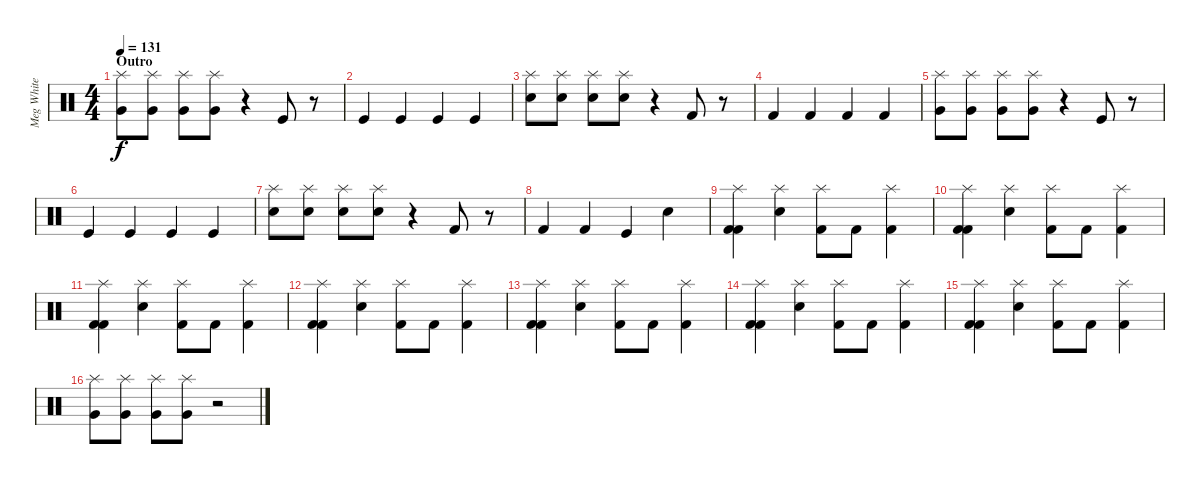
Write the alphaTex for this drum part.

\track ("Meg White" "Meg White") {instrument percussion}
\staff {score}
\articulation defaults
\ts (4 4)
\section ("" "Outro")
\tempo 131
\clef neutral
\ks c
("Splash (hit)" "Very Low Tom (hit)").8{dy f} ("Splash (hit)" "Very Low Tom (hit)").8 ("Splash (hit)" "Very Low Tom (hit)").8 ("Splash (hit)" "Very Low Tom (hit)").8 r.4 "Kick (hit)".8 r.8 |
"Kick (hit)".4 "Kick (hit)".4 "Kick (hit)".4 "Kick (hit)".4 |
("Splash (hit)" "Snare (hit) 2").8 ("Splash (hit)" "Snare (hit) 2").8 ("Splash (hit)" "Snare (hit) 2").8 ("Splash (hit)" "Snare (hit) 2").8 r.4 "Kick (hit) 2".8 r.8 |
"Kick (hit) 2".4 "Kick (hit) 2".4 "Kick (hit) 2".4 "Kick (hit) 2".4 |
("Splash (hit)" "Very Low Tom (hit)").8 ("Splash (hit)" "Very Low Tom (hit)").8 ("Splash (hit)" "Very Low Tom (hit)").8 ("Splash (hit)" "Very Low Tom (hit)").8 r.4 "Kick (hit)".8 r.8 |
"Kick (hit)".4 "Kick (hit)".4 "Kick (hit)".4 "Kick (hit)".4 |
("Splash (hit)" "Snare (hit) 2").8 ("Splash (hit)" "Snare (hit) 2").8 ("Splash (hit)" "Snare (hit) 2").8 ("Splash (hit)" "Snare (hit) 2").8 r.4 "Kick (hit) 2".8 r.8 |
"Kick (hit) 2".4 "Kick (hit) 2".4 "Kick (hit)".4 "Electric Snare (hit)".4 |
("Splash (hit)" "Kick (hit) 2" "Kick (hit) 2").4 ("Splash (hit)" "Snare (hit) 2").4 ("Splash (hit)" "Kick (hit) 2").8 "Kick (hit) 2".8 ("Splash (hit)" "Kick (hit) 2").4 |
("Splash (hit)" "Kick (hit) 2" "Kick (hit) 2").4 ("Splash (hit)" "Snare (hit) 2").4 ("Splash (hit)" "Kick (hit) 2").8 "Kick (hit) 2".8 ("Splash (hit)" "Kick (hit) 2").4 |
("Splash (hit)" "Kick (hit) 2" "Kick (hit) 2").4 ("Splash (hit)" "Snare (hit) 2").4 ("Splash (hit)" "Kick (hit) 2").8 "Kick (hit) 2".8 ("Splash (hit)" "Kick (hit) 2").4 |
("Splash (hit)" "Kick (hit) 2" "Kick (hit) 2").4 ("Splash (hit)" "Snare (hit) 2").4 ("Splash (hit)" "Kick (hit) 2").8 "Kick (hit) 2".8 ("Splash (hit)" "Kick (hit) 2").4 |
("Splash (hit)" "Kick (hit) 2" "Kick (hit) 2").4 ("Splash (hit)" "Snare (hit) 2").4 ("Splash (hit)" "Kick (hit) 2").8 "Kick (hit) 2".8 ("Splash (hit)" "Kick (hit) 2").4 |
("Splash (hit)" "Kick (hit) 2" "Kick (hit) 2").4 ("Splash (hit)" "Snare (hit) 2").4 ("Splash (hit)" "Kick (hit) 2").8 "Kick (hit) 2".8 ("Splash (hit)" "Kick (hit) 2").4 |
("Splash (hit)" "Kick (hit) 2" "Kick (hit) 2").4 ("Splash (hit)" "Snare (hit) 2").4 ("Splash (hit)" "Kick (hit) 2").8 "Kick (hit) 2".8 ("Splash (hit)" "Kick (hit) 2").4 |
("Splash (hit)" "Very Low Tom (hit)").8 ("Splash (hit)" "Very Low Tom (hit)").8 ("Splash (hit)" "Very Low Tom (hit)").8 ("Splash (hit)" "Very Low Tom (hit)").8 r.2
